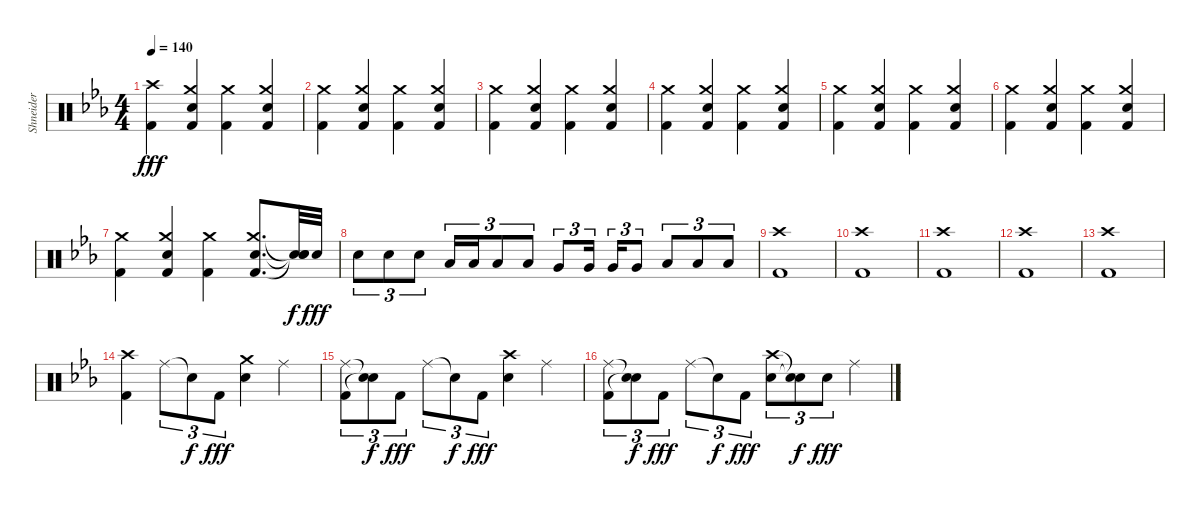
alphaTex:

\track ("Shneider" "Shneider") {instrument percussion}
\staff {score}
\articulation defaults
\ts (4 4)
\tempo 140
\clef neutral
\ks eb
("Crash high (hit)" "Kick (hit) 2").4{dy fff} ("Crash medium (hit)" "Snare (hit) 2" "Kick (hit) 2").4 ("Crash medium (hit)" "Kick (hit) 2").4 ("Crash medium (hit)" "Snare (hit) 2" "Kick (hit) 2").4 |
("Crash medium (hit)" "Kick (hit) 2").4 ("Crash medium (hit)" "Snare (hit) 2" "Kick (hit) 2").4 ("Crash medium (hit)" "Kick (hit) 2").4 ("Crash medium (hit)" "Snare (hit) 2" "Kick (hit) 2").4 |
("Crash medium (hit)" "Kick (hit) 2").4 ("Crash medium (hit)" "Snare (hit) 2" "Kick (hit) 2").4 ("Crash medium (hit)" "Kick (hit) 2").4 ("Crash medium (hit)" "Snare (hit) 2" "Kick (hit) 2").4 |
("Crash medium (hit)" "Kick (hit) 2").4 ("Crash medium (hit)" "Snare (hit) 2" "Kick (hit) 2").4 ("Crash medium (hit)" "Kick (hit) 2").4 ("Crash medium (hit)" "Snare (hit) 2" "Kick (hit) 2").4 |
("Crash medium (hit)" "Kick (hit) 2").4 ("Crash medium (hit)" "Snare (hit) 2" "Kick (hit) 2").4 ("Crash medium (hit)" "Kick (hit) 2").4 ("Crash medium (hit)" "Snare (hit) 2" "Kick (hit) 2").4 |
("Crash medium (hit)" "Kick (hit) 2").4 ("Crash medium (hit)" "Snare (hit) 2" "Kick (hit) 2").4 ("Crash medium (hit)" "Kick (hit) 2").4 ("Crash medium (hit)" "Snare (hit) 2" "Kick (hit) 2").4 |
("Crash medium (hit)" "Kick (hit) 2").4 ("Crash medium (hit)" "Snare (hit) 2" "Kick (hit) 2").4 ("Crash medium (hit)" "Kick (hit) 2").4 ("Crash medium (hit)" "Snare (hit) 2" "Kick (hit) 2").8{d} ("Snare (hit)"{t} "Snare (hit)"{t} "Snare (hit)"{t}).32{dy f} "Snare (hit) 2".32{dy fff} |
"Snare (hit) 2".8{tu (3 2)} "Snare (hit) 2".8{tu (3 2)} "Snare (hit) 2".8{tu (3 2)} "Low Tom (hit)".16{tu (3 2)} "Low Tom (hit)".16{tu (3 2)} "Low Tom (hit)".8{tu (3 2)} "Low Tom (hit)".8{tu (3 2)} "Very Low Tom (hit)".8{tu (3 2)} "Very Low Tom (hit)".16{tu (3 2) beam splitsecondary} "Very Low Tom (hit)".16{tu (3 2)} "Very Low Tom (hit)".8{tu (3 2)} "Low Floor Tom (hit)".8{tu (3 2)} "Low Floor Tom (hit)".8{tu (3 2)} "Low Floor Tom (hit)".8{tu (3 2)} |
("Crash high (hit)" "Kick (hit) 2").1 |
("Crash high (hit)" "Kick (hit) 2").1 |
("Crash high (hit)" "Kick (hit) 2").1 |
("Crash high (hit)" "Kick (hit) 2").1 |
("Crash high (hit)" "Kick (hit) 2").1 |
("Crash high (hit)" "Kick (hit) 2").4 "Ride (middle)".8{tu (3 2)} "Snare (hit)"{t}.8{tu (3 2) dy f} "Kick (hit) 2".8{tu (3 2) dy fff} ("Crash medium (hit)" "Snare (hit) 2").4 "Ride (middle)".4 |
("Ride (middle)" "Kick (hit) 2").8{tu (3 2)} ("Snare (hit)"{t} "Snare (hit)"{t}).8{tu (3 2) dy f} "Kick (hit) 2".8{tu (3 2) dy fff} "Ride (middle)".8{tu (3 2)} "Snare (hit)"{t}.8{tu (3 2) dy f} "Kick (hit) 2".8{tu (3 2) dy fff} ("Crash high (hit)" "Snare (hit) 2").4 "Ride (middle)".4 |
("Ride (middle)" "Kick (hit) 2").8{tu (3 2)} ("Snare (hit)"{t} "Snare (hit)"{t}).8{tu (3 2) dy f} "Kick (hit) 2".8{tu (3 2) dy fff} "Ride (middle)".8{tu (3 2)} "Snare (hit)"{t}.8{tu (3 2) dy f} "Kick (hit) 2".8{tu (3 2) dy fff} ("Crash high (hit)" "Snare (hit) 2").8{tu (3 2)} ("Snare (hit)"{t} "Snare (hit)"{t}).8{tu (3 2) dy f} "Snare (hit) 2".8{tu (3 2) dy fff} "Ride (middle)".4
